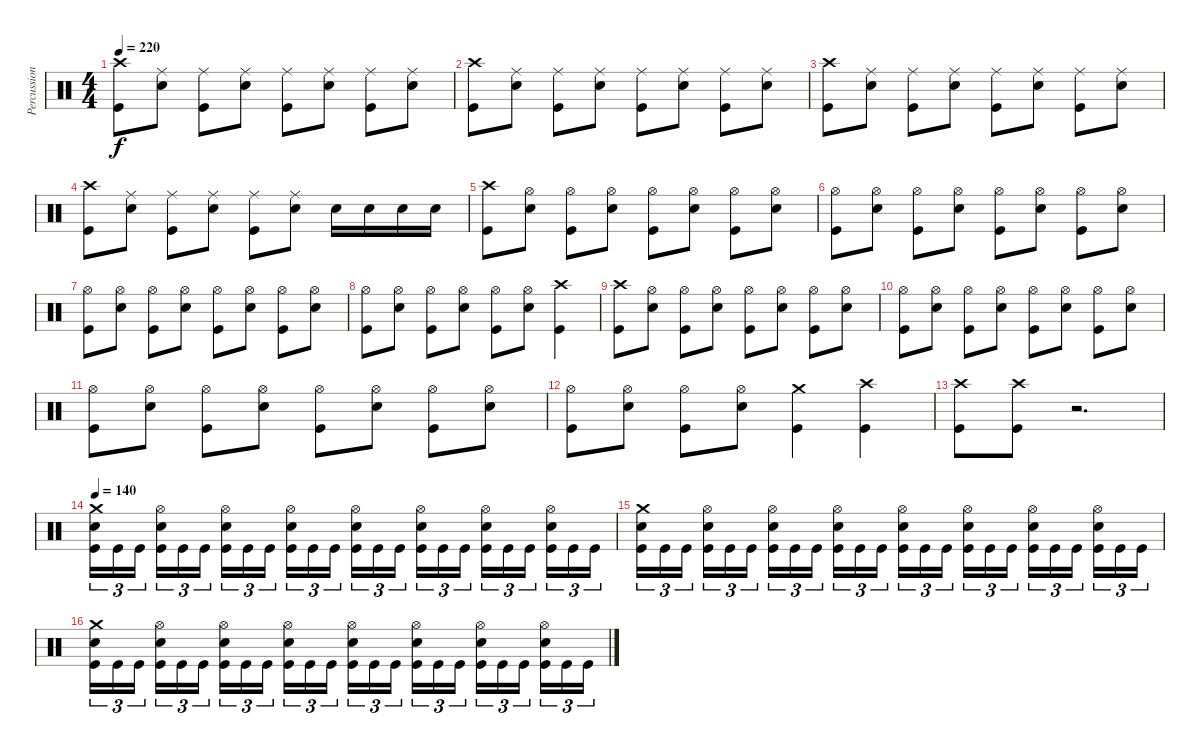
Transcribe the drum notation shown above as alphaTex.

\track ("Percussion" "Percussion") {instrument percussion}
\staff {score}
\articulation defaults
\ts (4 4)
\tempo 220
\clef neutral
\ks c
("Crash high (hit)" "Kick (hit)").8{dy f} ("Ride (middle)" "Snare (hit) 2").8 ("Ride (middle)" "Kick (hit)").8 ("Ride (middle)" "Snare (hit) 2").8 ("Ride (middle)" "Kick (hit)").8 ("Ride (middle)" "Snare (hit) 2").8 ("Ride (middle)" "Kick (hit)").8 ("Ride (middle)" "Snare (hit) 2").8 |
("Crash high (hit)" "Kick (hit)").8 ("Ride (middle)" "Snare (hit) 2").8 ("Ride (middle)" "Kick (hit)").8 ("Ride (middle)" "Snare (hit) 2").8 ("Ride (middle)" "Kick (hit)").8 ("Ride (middle)" "Snare (hit) 2").8 ("Ride (middle)" "Kick (hit)").8 ("Ride (middle)" "Snare (hit) 2").8 |
("Crash high (hit)" "Kick (hit)").8 ("Ride (middle)" "Snare (hit) 2").8 ("Ride (middle)" "Kick (hit)").8 ("Ride (middle)" "Snare (hit) 2").8 ("Ride (middle)" "Kick (hit)").8 ("Ride (middle)" "Snare (hit) 2").8 ("Ride (middle)" "Kick (hit)").8 ("Ride (middle)" "Snare (hit) 2").8 |
("Crash high (hit)" "Kick (hit)").8 ("Ride (middle)" "Snare (hit) 2").8 ("Ride (middle)" "Kick (hit)").8 ("Ride (middle)" "Snare (hit) 2").8 ("Ride (middle)" "Kick (hit)").8 ("Ride (middle)" "Snare (hit) 2").8 "Snare (hit) 2".16 "Snare (hit) 2".16 "Snare (hit) 2".16 "Snare (hit) 2".16 |
("Crash high (hit)" "Kick (hit)").8 ("Hi-Hat (open)" "Snare (hit) 2").8 ("Hi-Hat (open)" "Kick (hit)").8 ("Hi-Hat (open)" "Snare (hit) 2").8 ("Hi-Hat (open)" "Kick (hit)").8 ("Hi-Hat (open)" "Snare (hit) 2").8 ("Hi-Hat (open)" "Kick (hit)").8 ("Hi-Hat (open)" "Snare (hit) 2").8 |
("Hi-Hat (open)" "Kick (hit)").8 ("Hi-Hat (open)" "Snare (hit) 2").8 ("Hi-Hat (open)" "Kick (hit)").8 ("Hi-Hat (open)" "Snare (hit) 2").8 ("Hi-Hat (open)" "Kick (hit)").8 ("Hi-Hat (open)" "Snare (hit) 2").8 ("Hi-Hat (open)" "Kick (hit)").8 ("Hi-Hat (open)" "Snare (hit) 2").8 |
("Hi-Hat (open)" "Kick (hit)").8 ("Hi-Hat (open)" "Snare (hit) 2").8 ("Hi-Hat (open)" "Kick (hit)").8 ("Hi-Hat (open)" "Snare (hit) 2").8 ("Hi-Hat (open)" "Kick (hit)").8 ("Hi-Hat (open)" "Snare (hit) 2").8 ("Hi-Hat (open)" "Kick (hit)").8 ("Hi-Hat (open)" "Snare (hit) 2").8 |
("Hi-Hat (open)" "Kick (hit)").8 ("Hi-Hat (open)" "Snare (hit) 2").8 ("Hi-Hat (open)" "Kick (hit)").8 ("Hi-Hat (open)" "Snare (hit) 2").8 ("Hi-Hat (open)" "Kick (hit)").8 ("Hi-Hat (open)" "Snare (hit) 2").8 ("Crash high (hit)" "Kick (hit)").4 |
("Crash high (hit)" "Kick (hit)").8 ("Hi-Hat (open)" "Snare (hit) 2").8 ("Hi-Hat (open)" "Kick (hit)").8 ("Hi-Hat (open)" "Snare (hit) 2").8 ("Hi-Hat (open)" "Kick (hit)").8 ("Hi-Hat (open)" "Snare (hit) 2").8 ("Hi-Hat (open)" "Kick (hit)").8 ("Hi-Hat (open)" "Snare (hit) 2").8 |
("Hi-Hat (open)" "Kick (hit)").8 ("Hi-Hat (open)" "Snare (hit) 2").8 ("Hi-Hat (open)" "Kick (hit)").8 ("Hi-Hat (open)" "Snare (hit) 2").8 ("Hi-Hat (open)" "Kick (hit)").8 ("Hi-Hat (open)" "Snare (hit) 2").8 ("Hi-Hat (open)" "Kick (hit)").8 ("Hi-Hat (open)" "Snare (hit) 2").8 |
("Hi-Hat (open)" "Kick (hit)").8 ("Hi-Hat (open)" "Snare (hit) 2").8 ("Hi-Hat (open)" "Kick (hit)").8 ("Hi-Hat (open)" "Snare (hit) 2").8 ("Hi-Hat (open)" "Kick (hit)").8 ("Hi-Hat (open)" "Snare (hit) 2").8 ("Hi-Hat (open)" "Kick (hit)").8 ("Hi-Hat (open)" "Snare (hit) 2").8 |
("Hi-Hat (open)" "Kick (hit)").8 ("Hi-Hat (open)" "Snare (hit) 2").8 ("Hi-Hat (open)" "Kick (hit)").8 ("Hi-Hat (open)" "Snare (hit) 2").8 ("Crash medium (hit)" "Kick (hit)").4 ("Crash high (hit)" "Kick (hit)").4 |
("Crash high (hit)" "Kick (hit)").8 ("Crash high (hit)" "Kick (hit)").8 r.2{d} |
\tempo 140
("Crash medium (hit)" "Snare (hit) 2" "Kick (hit)").16{tu (3 2)} "Kick (hit)".16{tu (3 2)} "Kick (hit)".16{tu (3 2)} ("Hi-Hat (open)" "Snare (hit) 2" "Kick (hit)").16{tu (3 2)} "Kick (hit)".16{tu (3 2)} "Kick (hit)".16{tu (3 2)} ("Hi-Hat (open)" "Snare (hit) 2" "Kick (hit)").16{tu (3 2)} "Kick (hit)".16{tu (3 2)} "Kick (hit)".16{tu (3 2)} ("Hi-Hat (open)" "Snare (hit) 2" "Kick (hit)").16{tu (3 2)} "Kick (hit)".16{tu (3 2)} "Kick (hit)".16{tu (3 2)} ("Hi-Hat (open)" "Snare (hit) 2" "Kick (hit)").16{tu (3 2)} "Kick (hit)".16{tu (3 2)} "Kick (hit)".16{tu (3 2)} ("Hi-Hat (open)" "Snare (hit) 2" "Kick (hit)").16{tu (3 2)} "Kick (hit)".16{tu (3 2)} "Kick (hit)".16{tu (3 2)} ("Hi-Hat (open)" "Snare (hit) 2" "Kick (hit)").16{tu (3 2)} "Kick (hit)".16{tu (3 2)} "Kick (hit)".16{tu (3 2)} ("Hi-Hat (open)" "Snare (hit) 2" "Kick (hit)").16{tu (3 2)} "Kick (hit)".16{tu (3 2)} "Kick (hit)".16{tu (3 2)} |
("Crash medium (hit)" "Snare (hit) 2" "Kick (hit)").16{tu (3 2)} "Kick (hit)".16{tu (3 2)} "Kick (hit)".16{tu (3 2)} ("Hi-Hat (open)" "Snare (hit) 2" "Kick (hit)").16{tu (3 2)} "Kick (hit)".16{tu (3 2)} "Kick (hit)".16{tu (3 2)} ("Hi-Hat (open)" "Snare (hit) 2" "Kick (hit)").16{tu (3 2)} "Kick (hit)".16{tu (3 2)} "Kick (hit)".16{tu (3 2)} ("Hi-Hat (open)" "Snare (hit) 2" "Kick (hit)").16{tu (3 2)} "Kick (hit)".16{tu (3 2)} "Kick (hit)".16{tu (3 2)} ("Hi-Hat (open)" "Snare (hit) 2" "Kick (hit)").16{tu (3 2)} "Kick (hit)".16{tu (3 2)} "Kick (hit)".16{tu (3 2)} ("Hi-Hat (open)" "Snare (hit) 2" "Kick (hit)").16{tu (3 2)} "Kick (hit)".16{tu (3 2)} "Kick (hit)".16{tu (3 2)} ("Hi-Hat (open)" "Snare (hit) 2" "Kick (hit)").16{tu (3 2)} "Kick (hit)".16{tu (3 2)} "Kick (hit)".16{tu (3 2)} ("Hi-Hat (open)" "Snare (hit) 2" "Kick (hit)").16{tu (3 2)} "Kick (hit)".16{tu (3 2)} "Kick (hit)".16{tu (3 2)} |
("Crash medium (hit)" "Snare (hit) 2" "Kick (hit)").16{tu (3 2)} "Kick (hit)".16{tu (3 2)} "Kick (hit)".16{tu (3 2)} ("Hi-Hat (open)" "Snare (hit) 2" "Kick (hit)").16{tu (3 2)} "Kick (hit)".16{tu (3 2)} "Kick (hit)".16{tu (3 2)} ("Hi-Hat (open)" "Snare (hit) 2" "Kick (hit)").16{tu (3 2)} "Kick (hit)".16{tu (3 2)} "Kick (hit)".16{tu (3 2)} ("Hi-Hat (open)" "Snare (hit) 2" "Kick (hit)").16{tu (3 2)} "Kick (hit)".16{tu (3 2)} "Kick (hit)".16{tu (3 2)} ("Hi-Hat (open)" "Snare (hit) 2" "Kick (hit)").16{tu (3 2)} "Kick (hit)".16{tu (3 2)} "Kick (hit)".16{tu (3 2)} ("Hi-Hat (open)" "Snare (hit) 2" "Kick (hit)").16{tu (3 2)} "Kick (hit)".16{tu (3 2)} "Kick (hit)".16{tu (3 2)} ("Hi-Hat (open)" "Snare (hit) 2" "Kick (hit)").16{tu (3 2)} "Kick (hit)".16{tu (3 2)} "Kick (hit)".16{tu (3 2)} ("Hi-Hat (open)" "Snare (hit) 2" "Kick (hit)").16{tu (3 2)} "Kick (hit)".16{tu (3 2)} "Kick (hit)".16{tu (3 2)}
